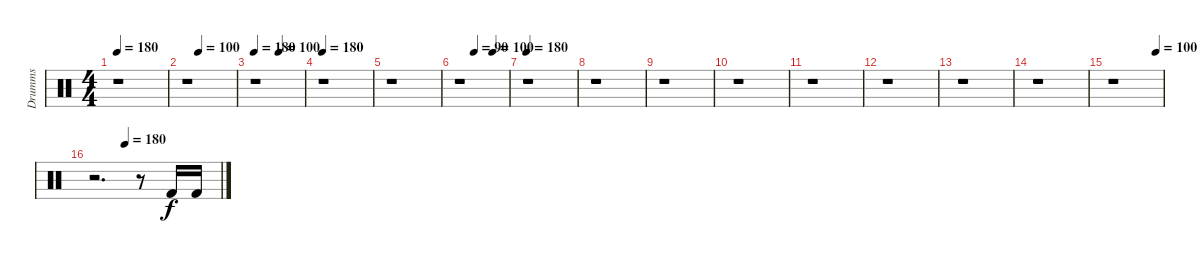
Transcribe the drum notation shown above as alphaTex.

\track ("Drumms" "Drumms") {instrument percussion}
\staff {score}
\articulation defaults
\ts (4 4)
\tempo 180
\clef neutral
\ks c
r.1{dy f} |
\tempo (100 0.25)
r.1 |
\tempo 180
\tempo (100 0.5)
r.1 |
\tempo 180
r.1 |
r.1 |
\tempo (90 0.3125)
\tempo (100 0.6875)
r.1 |
\tempo 180
r.1 |
r.1 |
r.1 |
r.1 |
r.1 |
r.1 |
r.1 |
r.1 |
\tempo (100 0.875)
r.1 |
\tempo (180 0.25)
r.2{d} r.8 "Kick (hit) 2".16 "Kick (hit) 2".16
